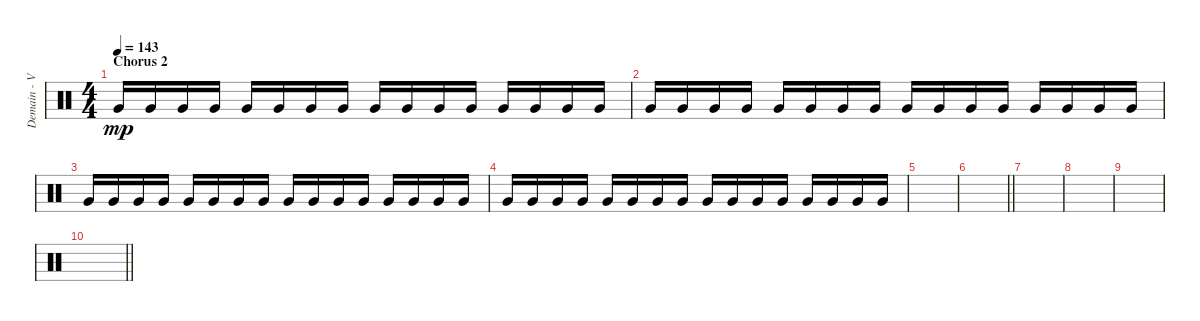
\track ("Demain - Various Perc." "Demain - V") {instrument percussion}
\staff {score}
\articulation defaults
\ts (4 4)
\section ("" "Chorus 2")
\tempo 143
\clef neutral
\ks c "Very Low Tom (hit)".16{dy mp} "Very Low Tom (hit)".16 "Very Low Tom (hit)".16 "Very Low Tom (hit)".16 "Very Low Tom (hit)".16 "Very Low Tom (hit)".16 "Very Low Tom (hit)".16 "Very Low Tom (hit)".16 "Very Low Tom (hit)".16 "Very Low Tom (hit)".16 "Very Low Tom (hit)".16 "Very Low Tom (hit)".16 "Very Low Tom (hit)".16 "Very Low Tom (hit)".16 "Very Low Tom (hit)".16 "Very Low Tom (hit)".16
|
"Very Low Tom (hit)".16 "Very Low Tom (hit)".16 "Very Low Tom (hit)".16 "Very Low Tom (hit)".16 "Very Low Tom (hit)".16 "Very Low Tom (hit)".16 "Very Low Tom (hit)".16 "Very Low Tom (hit)".16 "Very Low Tom (hit)".16 "Very Low Tom (hit)".16 "Very Low Tom (hit)".16 "Very Low Tom (hit)".16 "Very Low Tom (hit)".16 "Very Low Tom (hit)".16 "Very Low Tom (hit)".16 "Very Low Tom (hit)".16 |
"Very Low Tom (hit)".16 "Very Low Tom (hit)".16 "Very Low Tom (hit)".16 "Very Low Tom (hit)".16 "Very Low Tom (hit)".16 "Very Low Tom (hit)".16 "Very Low Tom (hit)".16 "Very Low Tom (hit)".16 "Very Low Tom (hit)".16 "Very Low Tom (hit)".16 "Very Low Tom (hit)".16 "Very Low Tom (hit)".16 "Very Low Tom (hit)".16 "Very Low Tom (hit)".16 "Very Low Tom (hit)".16 "Very Low Tom (hit)".16 |
"Very Low Tom (hit)".16 "Very Low Tom (hit)".16 "Very Low Tom (hit)".16 "Very Low Tom (hit)".16 "Very Low Tom (hit)".16 "Very Low Tom (hit)".16 "Very Low Tom (hit)".16 "Very Low Tom (hit)".16 "Very Low Tom (hit)".16 "Very Low Tom (hit)".16 "Very Low Tom (hit)".16 "Very Low Tom (hit)".16 "Very Low Tom (hit)".16 "Very Low Tom (hit)".16 "Very Low Tom (hit)".16 "Very Low Tom (hit)".16 |
|
\barLineRight lightlight
|
|
|
|
\barLineRight lightlight
